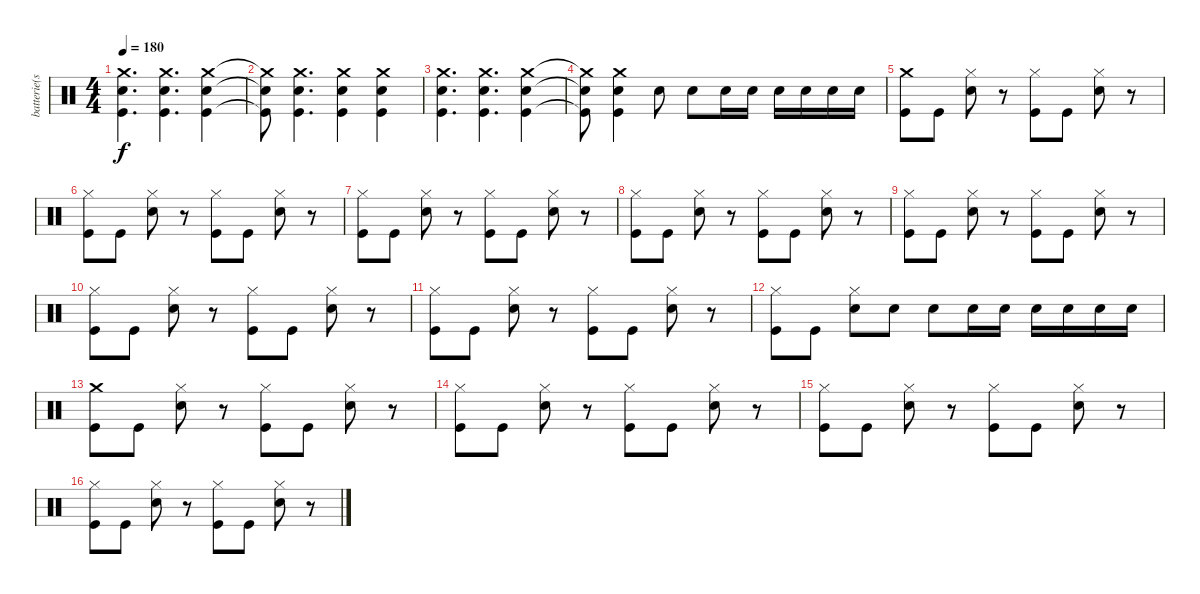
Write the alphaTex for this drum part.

\track ("batterie(scott)" "batterie(s") {instrument percussion}
\staff {score}
\articulation defaults
\ts (4 4)
\tempo 180
\clef neutral
\ks c
("Crash medium (hit)" "Snare (hit) 2" "Kick (hit)").4{d dy f} ("Crash medium (hit)" "Snare (hit) 2" "Kick (hit)").4{d} ("Crash medium (hit)" "Snare (hit) 2" "Kick (hit)").4 |
("Crash medium (hit)"{t} "Snare (hit) 2"{t} "Kick (hit)"{t}).8 ("Crash medium (hit)" "Snare (hit) 2" "Kick (hit)").4{d} ("Crash medium (hit)" "Snare (hit) 2" "Kick (hit)").4 ("Crash medium (hit)" "Snare (hit) 2" "Kick (hit)").4 |
("Crash medium (hit)" "Snare (hit) 2" "Kick (hit)").4{d} ("Crash medium (hit)" "Snare (hit) 2" "Kick (hit)").4{d} ("Crash medium (hit)" "Snare (hit) 2" "Kick (hit)").4 |
("Crash medium (hit)"{t} "Snare (hit) 2"{t} "Kick (hit)"{t}).8 ("Crash medium (hit)" "Snare (hit) 2" "Kick (hit)").4 "Snare (hit) 2".8 "Snare (hit) 2".8 "Snare (hit) 2".16 "Snare (hit) 2".16 "Snare (hit) 2".16 "Snare (hit) 2".16 "Snare (hit) 2".16 "Snare (hit) 2".16 |
("Crash medium (hit)" "Kick (hit)").8 "Kick (hit)".8 ("Hi-Hat (closed)" "Snare (hit) 2").8 r.8 ("Hi-Hat (closed)" "Kick (hit)").8 "Kick (hit)".8 ("Hi-Hat (closed)" "Snare (hit) 2").8 r.8 |
("Hi-Hat (closed)" "Kick (hit)").8 "Kick (hit)".8 ("Hi-Hat (closed)" "Snare (hit) 2").8 r.8 ("Hi-Hat (closed)" "Kick (hit)").8 "Kick (hit)".8 ("Hi-Hat (closed)" "Snare (hit) 2").8 r.8 |
("Hi-Hat (closed)" "Kick (hit)").8 "Kick (hit)".8 ("Hi-Hat (closed)" "Snare (hit) 2").8 r.8 ("Hi-Hat (closed)" "Kick (hit)").8 "Kick (hit)".8 ("Hi-Hat (closed)" "Snare (hit) 2").8 r.8 |
("Hi-Hat (closed)" "Kick (hit)").8 "Kick (hit)".8 ("Hi-Hat (closed)" "Snare (hit) 2").8 r.8 ("Hi-Hat (closed)" "Kick (hit)").8 "Kick (hit)".8 ("Hi-Hat (closed)" "Snare (hit) 2").8 r.8 |
("Hi-Hat (closed)" "Kick (hit)").8 "Kick (hit)".8 ("Hi-Hat (closed)" "Snare (hit) 2").8 r.8 ("Hi-Hat (closed)" "Kick (hit)").8 "Kick (hit)".8 ("Hi-Hat (closed)" "Snare (hit) 2").8 r.8 |
("Hi-Hat (closed)" "Kick (hit)").8 "Kick (hit)".8 ("Hi-Hat (closed)" "Snare (hit) 2").8 r.8 ("Hi-Hat (closed)" "Kick (hit)").8 "Kick (hit)".8 ("Hi-Hat (closed)" "Snare (hit) 2").8 r.8 |
("Hi-Hat (closed)" "Kick (hit)").8 "Kick (hit)".8 ("Hi-Hat (closed)" "Snare (hit) 2").8 r.8 ("Hi-Hat (closed)" "Kick (hit)").8 "Kick (hit)".8 ("Hi-Hat (closed)" "Snare (hit) 2").8 r.8 |
("Hi-Hat (closed)" "Kick (hit)").8 "Kick (hit)".8 ("Hi-Hat (closed)" "Snare (hit) 2").8 "Snare (hit) 2".8 "Snare (hit) 2".8 "Snare (hit) 2".16 "Snare (hit) 2".16 "Snare (hit) 2".16 "Snare (hit) 2".16 "Snare (hit) 2".16 "Snare (hit) 2".16 |
("Crash medium (hit)" "Kick (hit)").8 "Kick (hit)".8 ("Hi-Hat (closed)" "Snare (hit) 2").8 r.8 ("Hi-Hat (closed)" "Kick (hit)").8 "Kick (hit)".8 ("Hi-Hat (closed)" "Snare (hit) 2").8 r.8 |
("Hi-Hat (closed)" "Kick (hit)").8 "Kick (hit)".8 ("Hi-Hat (closed)" "Snare (hit) 2").8 r.8 ("Hi-Hat (closed)" "Kick (hit)").8 "Kick (hit)".8 ("Hi-Hat (closed)" "Snare (hit) 2").8 r.8 |
("Hi-Hat (closed)" "Kick (hit)").8 "Kick (hit)".8 ("Hi-Hat (closed)" "Snare (hit) 2").8 r.8 ("Hi-Hat (closed)" "Kick (hit)").8 "Kick (hit)".8 ("Hi-Hat (closed)" "Snare (hit) 2").8 r.8 |
("Hi-Hat (closed)" "Kick (hit)").8 "Kick (hit)".8 ("Hi-Hat (closed)" "Snare (hit) 2").8 r.8 ("Hi-Hat (closed)" "Kick (hit)").8 "Kick (hit)".8 ("Hi-Hat (closed)" "Snare (hit) 2").8 r.8
